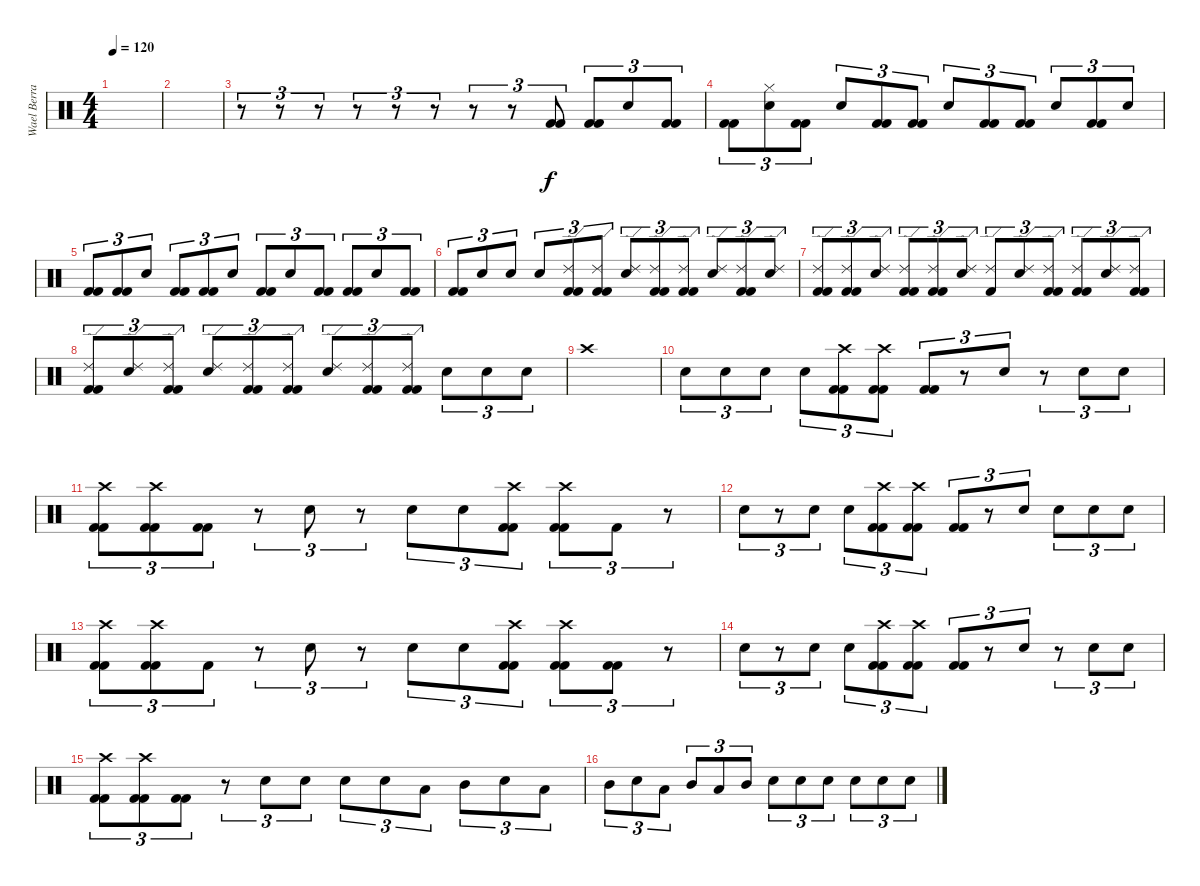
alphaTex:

\track ("Wael Berrais" "Wael Berra") {instrument percussion}
\staff {score}
\articulation defaults
\ts (4 4)
\tempo 120
\clef neutral
\ks c
|
|
r.8{tu (3 2)} r.8{tu (3 2)} r.8{tu (3 2)} r.8{tu (3 2)} r.8{tu (3 2)} r.8{tu (3 2)} r.8{tu (3 2)} r.8{tu (3 2)} ("Kick (hit) 2" "Kick (hit) 2").8{tu (3 2)} ("Kick (hit) 2" "Kick (hit) 2").8{tu (3 2)} "Electric Snare (hit)".8{tu (3 2)} ("Kick (hit) 2" "Kick (hit) 2").8{tu (3 2)} |
("Kick (hit) 2" "Kick (hit) 2").8{tu (3 2)} ("Electric Snare (hit)" "Hi-Hat (closed)").8{tu (3 2)} ("Kick (hit) 2" "Kick (hit) 2").8{tu (3 2)} "Electric Snare (hit)".8{tu (3 2)} ("Kick (hit) 2" "Kick (hit) 2").8{tu (3 2)} ("Kick (hit) 2" "Kick (hit) 2").8{tu (3 2)} "Electric Snare (hit)".8{tu (3 2)} ("Kick (hit) 2" "Kick (hit) 2").8{tu (3 2)} ("Kick (hit) 2" "Kick (hit) 2").8{tu (3 2)} "Electric Snare (hit)".8{tu (3 2)} ("Kick (hit) 2" "Kick (hit) 2").8{tu (3 2)} "Electric Snare (hit)".8{tu (3 2)} |
("Kick (hit) 2" "Kick (hit) 2").8{tu (3 2)} ("Kick (hit) 2" "Kick (hit) 2").8{tu (3 2)} "Electric Snare (hit)".8{tu (3 2)} ("Kick (hit) 2" "Kick (hit) 2").8{tu (3 2)} ("Kick (hit) 2" "Kick (hit) 2").8{tu (3 2)} "Electric Snare (hit)".8{tu (3 2)} ("Kick (hit) 2" "Kick (hit) 2").8{tu (3 2)} "Electric Snare (hit)".8{tu (3 2)} ("Kick (hit) 2" "Kick (hit) 2").8{tu (3 2)} ("Kick (hit) 2" "Kick (hit) 2").8{tu (3 2)} "Electric Snare (hit)".8{tu (3 2)} ("Kick (hit) 2" "Kick (hit) 2").8{tu (3 2)} |
("Kick (hit) 2" "Kick (hit) 2").8{tu (3 2)} "Electric Snare (hit)".8{tu (3 2)} "Electric Snare (hit)".8{tu (3 2)} "Electric Snare (hit)".8{tu (3 2)} ("Ride (edge) 2" "Kick (hit) 2" "Kick (hit) 2").8{tu (3 2)} ("Ride (edge) 2" "Kick (hit) 2" "Kick (hit) 2").8{tu (3 2)} ("Ride (edge) 2" "Electric Snare (hit)").8{tu (3 2)} ("Ride (edge) 2" "Kick (hit) 2" "Kick (hit) 2").8{tu (3 2)} ("Ride (edge) 2" "Kick (hit) 2" "Kick (hit) 2").8{tu (3 2)} ("Ride (edge) 2" "Electric Snare (hit)").8{tu (3 2)} ("Ride (edge) 2" "Kick (hit) 2" "Kick (hit) 2").8{tu (3 2)} ("Ride (edge) 2" "Electric Snare (hit)").8{tu (3 2)} |
("Ride (edge) 2" "Kick (hit) 2" "Kick (hit) 2").8{tu (3 2)} ("Ride (edge) 2" "Kick (hit) 2" "Kick (hit) 2").8{tu (3 2)} ("Ride (edge) 2" "Electric Snare (hit)").8{tu (3 2)} ("Ride (edge) 2" "Kick (hit) 2" "Kick (hit) 2").8{tu (3 2)} ("Ride (edge) 2" "Kick (hit) 2" "Kick (hit) 2").8{tu (3 2)} ("Ride (edge) 2" "Electric Snare (hit)").8{tu (3 2)} ("Ride (edge) 2" "Kick (hit) 2").8{tu (3 2)} ("Ride (edge) 2" "Electric Snare (hit)").8{tu (3 2)} ("Ride (edge) 2" "Kick (hit) 2" "Kick (hit) 2").8{tu (3 2)} ("Ride (edge) 2" "Kick (hit) 2" "Kick (hit) 2").8{tu (3 2)} ("Ride (edge) 2" "Electric Snare (hit)").8{tu (3 2)} ("Ride (edge) 2" "Kick (hit) 2" "Kick (hit) 2").8{tu (3 2)} |
("Ride (edge) 2" "Kick (hit) 2" "Kick (hit) 2").8{tu (3 2)} ("Ride (edge) 2" "Electric Snare (hit)").8{tu (3 2)} ("Ride (edge) 2" "Kick (hit) 2" "Kick (hit) 2").8{tu (3 2)} ("Ride (edge) 2" "Electric Snare (hit)").8{tu (3 2)} ("Ride (edge) 2" "Kick (hit) 2" "Kick (hit) 2").8{tu (3 2)} ("Ride (edge) 2" "Kick (hit) 2" "Kick (hit) 2").8{tu (3 2)} ("Ride (edge) 2" "Electric Snare (hit)").8{tu (3 2)} ("Ride (edge) 2" "Kick (hit) 2" "Kick (hit) 2").8{tu (3 2)} ("Ride (edge) 2" "Kick (hit) 2" "Kick (hit) 2").8{tu (3 2)} "Electric Snare (hit)".8{tu (3 2)} "Electric Snare (hit)".8{tu (3 2)} "Electric Snare (hit)".8{tu (3 2)} |
"Crash high (hit)".1 |
"Electric Snare (hit)".8{tu (3 2)} "Electric Snare (hit)".8{tu (3 2)} "Electric Snare (hit)".8{tu (3 2)} "Electric Snare (hit)".8{tu (3 2)} ("Kick (hit) 2" "Kick (hit) 2" "Crash high (hit)").8{tu (3 2)} ("Kick (hit) 2" "Kick (hit) 2" "Crash high (hit)").8{tu (3 2)} ("Kick (hit) 2" "Kick (hit) 2").8{tu (3 2)} r.8{tu (3 2)} "Electric Snare (hit)".8{tu (3 2)} r.8{tu (3 2)} "Electric Snare (hit)".8{tu (3 2)} "Electric Snare (hit)".8{tu (3 2)} |
("Kick (hit) 2" "Kick (hit) 2" "Crash high (hit)").8{tu (3 2)} ("Kick (hit) 2" "Kick (hit) 2" "Crash high (hit)").8{tu (3 2)} ("Kick (hit) 2" "Kick (hit) 2").8{tu (3 2)} r.8{tu (3 2)} "Electric Snare (hit)".8{tu (3 2)} r.8{tu (3 2)} "Electric Snare (hit)".8{tu (3 2)} "Electric Snare (hit)".8{tu (3 2)} ("Kick (hit) 2" "Kick (hit) 2" "Crash high (hit)").8{tu (3 2)} ("Kick (hit) 2" "Kick (hit) 2" "Crash high (hit)").8{tu (3 2)} "Kick (hit) 2".8{tu (3 2)} r.8{tu (3 2)} |
"Electric Snare (hit)".8{tu (3 2)} r.8{tu (3 2)} "Electric Snare (hit)".8{tu (3 2)} "Electric Snare (hit)".8{tu (3 2)} ("Kick (hit) 2" "Kick (hit) 2" "Crash high (hit)").8{tu (3 2)} ("Kick (hit) 2" "Kick (hit) 2" "Crash high (hit)").8{tu (3 2)} ("Kick (hit) 2" "Kick (hit) 2").8{tu (3 2)} r.8{tu (3 2)} "Electric Snare (hit)".8{tu (3 2)} "Electric Snare (hit)".8{tu (3 2)} "Electric Snare (hit)".8{tu (3 2)} "Electric Snare (hit)".8{tu (3 2)} |
("Kick (hit) 2" "Kick (hit) 2" "Crash high (hit)").8{tu (3 2)} ("Kick (hit) 2" "Kick (hit) 2" "Crash high (hit)").8{tu (3 2)} "Kick (hit) 2".8{tu (3 2)} r.8{tu (3 2)} "Electric Snare (hit)".8{tu (3 2)} r.8{tu (3 2)} "Electric Snare (hit)".8{tu (3 2)} "Electric Snare (hit)".8{tu (3 2)} ("Kick (hit) 2" "Kick (hit) 2" "Crash high (hit)").8{tu (3 2)} ("Kick (hit) 2" "Kick (hit) 2" "Crash high (hit)").8{tu (3 2)} ("Kick (hit) 2" "Kick (hit) 2").8{tu (3 2)} r.8{tu (3 2)} |
"Electric Snare (hit)".8{tu (3 2)} r.8{tu (3 2)} "Electric Snare (hit)".8{tu (3 2)} "Electric Snare (hit)".8{tu (3 2)} ("Kick (hit) 2" "Kick (hit) 2" "Crash high (hit)").8{tu (3 2)} ("Kick (hit) 2" "Kick (hit) 2" "Crash high (hit)").8{tu (3 2)} ("Kick (hit) 2" "Kick (hit) 2").8{tu (3 2)} r.8{tu (3 2)} "Electric Snare (hit)".8{tu (3 2)} r.8{tu (3 2)} "Electric Snare (hit)".8{tu (3 2)} "Electric Snare (hit)".8{tu (3 2)} |
("Kick (hit) 2" "Kick (hit) 2" "Crash high (hit)").8{tu (3 2)} ("Kick (hit) 2" "Kick (hit) 2" "Crash high (hit)").8{tu (3 2)} ("Kick (hit) 2" "Kick (hit) 2").8{tu (3 2)} r.8{tu (3 2)} "Electric Snare (hit)".8{tu (3 2)} "Electric Snare (hit)".8{tu (3 2)} "Electric Snare (hit)".8{tu (3 2)} "Electric Snare (hit)".8{tu (3 2)} "Low Tom (hit)".8{tu (3 2)} "Mid Tom (hit)".8{tu (3 2)} "Electric Snare (hit)".8{tu (3 2)} "Low Tom (hit)".8{tu (3 2)} |
"Mid Tom (hit)".8{tu (3 2)} "Electric Snare (hit)".8{tu (3 2)} "Low Tom (hit)".8{tu (3 2)} "Mid Tom (hit)".8{tu (3 2)} "Low Tom (hit)".8{tu (3 2)} "Mid Tom (hit)".8{tu (3 2)} "Electric Snare (hit)".8{tu (3 2)} "Electric Snare (hit)".8{tu (3 2)} "Electric Snare (hit)".8{tu (3 2)} "Electric Snare (hit)".8{tu (3 2)} "Electric Snare (hit)".8{tu (3 2)} "Electric Snare (hit)".8{tu (3 2)}
